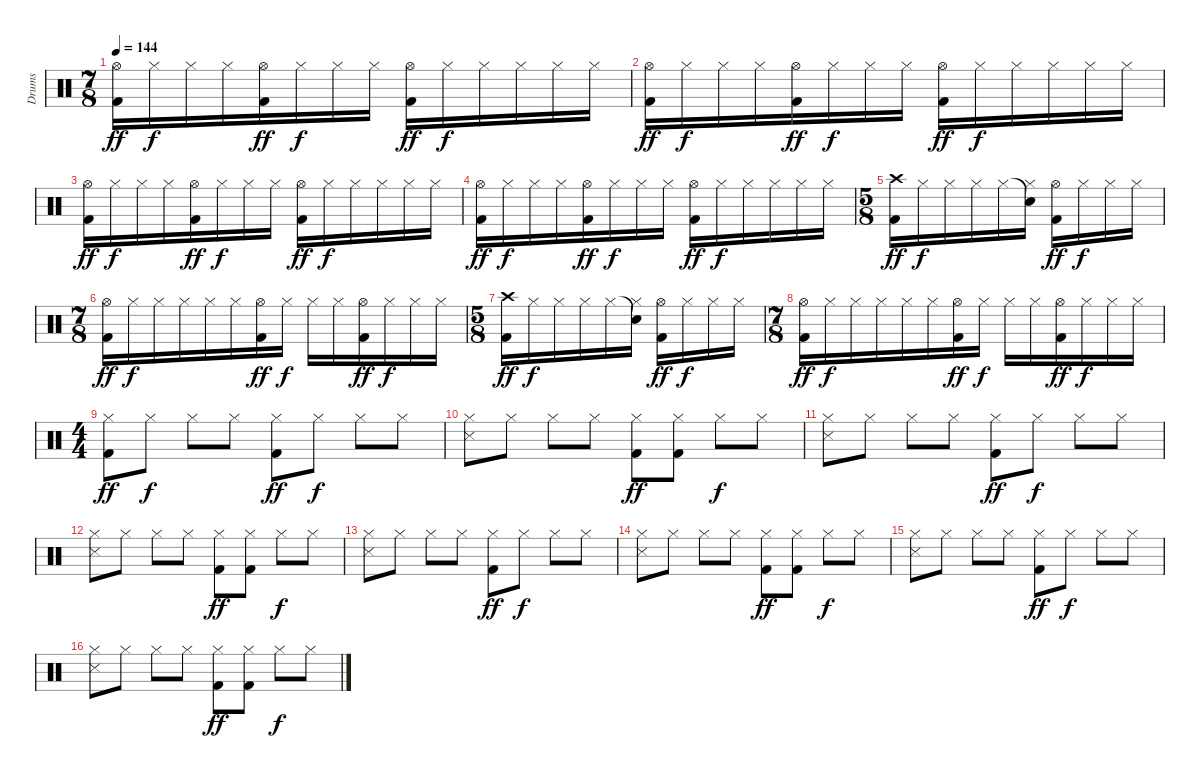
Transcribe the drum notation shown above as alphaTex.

\track ("Drums" "Drums") {instrument percussion}
\staff {score}
\articulation defaults
\ts (7 8)
\tempo 144
\clef neutral
\ks c
("Hi-Hat (open)" "Kick (hit) 2").16{dy ff} "Hi-Hat (closed)".16{dy f} "Hi-Hat (closed)".16 "Hi-Hat (closed)".16 ("Hi-Hat (open)" "Kick (hit) 2").16{dy ff} "Hi-Hat (closed)".16{dy f} "Hi-Hat (closed)".16 "Hi-Hat (closed)".16 ("Hi-Hat (open)" "Kick (hit) 2").16{dy ff} "Hi-Hat (closed)".16{dy f} "Hi-Hat (closed)".16 "Hi-Hat (closed)".16 "Hi-Hat (closed)".16 "Hi-Hat (closed)".16 |
("Hi-Hat (open)" "Kick (hit) 2").16{dy ff} "Hi-Hat (closed)".16{dy f} "Hi-Hat (closed)".16 "Hi-Hat (closed)".16 ("Hi-Hat (open)" "Kick (hit) 2").16{dy ff} "Hi-Hat (closed)".16{dy f} "Hi-Hat (closed)".16 "Hi-Hat (closed)".16 ("Hi-Hat (open)" "Kick (hit) 2").16{dy ff} "Hi-Hat (closed)".16{dy f} "Hi-Hat (closed)".16 "Hi-Hat (closed)".16 "Hi-Hat (closed)".16 "Hi-Hat (closed)".16 |
("Hi-Hat (open)" "Kick (hit) 2").16{dy ff} "Hi-Hat (closed)".16{dy f} "Hi-Hat (closed)".16 "Hi-Hat (closed)".16 ("Hi-Hat (open)" "Kick (hit) 2").16{dy ff} "Hi-Hat (closed)".16{dy f} "Hi-Hat (closed)".16 "Hi-Hat (closed)".16 ("Hi-Hat (open)" "Kick (hit) 2").16{dy ff} "Hi-Hat (closed)".16{dy f} "Hi-Hat (closed)".16 "Hi-Hat (closed)".16 "Hi-Hat (closed)".16 "Hi-Hat (closed)".16 |
("Hi-Hat (open)" "Kick (hit) 2").16{dy ff} "Hi-Hat (closed)".16{dy f} "Hi-Hat (closed)".16 "Hi-Hat (closed)".16 ("Hi-Hat (open)" "Kick (hit) 2").16{dy ff} "Hi-Hat (closed)".16{dy f} "Hi-Hat (closed)".16 "Hi-Hat (closed)".16 ("Hi-Hat (open)" "Kick (hit) 2").16{dy ff} "Hi-Hat (closed)".16{dy f} "Hi-Hat (closed)".16 "Hi-Hat (closed)".16 "Hi-Hat (closed)".16 "Hi-Hat (closed)".16 |
\ts (5 8)
("Crash high (hit)" "Kick (hit) 2").16{dy ff} "Hi-Hat (closed)".16{dy f} "Hi-Hat (closed)".16 "Hi-Hat (closed)".16 "Hi-Hat (closed)".16 ("Snare (hit)"{t} "Hi-Hat (closed)").16 ("Hi-Hat (open)" "Kick (hit) 2").16{dy ff} "Hi-Hat (closed)".16{dy f} "Hi-Hat (closed)".16 "Hi-Hat (closed)".16 |
\ts (7 8)
("Hi-Hat (open)" "Kick (hit) 2").16{dy ff} "Hi-Hat (closed)".16{dy f} "Hi-Hat (closed)".16 "Hi-Hat (closed)".16 "Hi-Hat (closed)".16 "Hi-Hat (closed)".16 ("Hi-Hat (open)" "Kick (hit) 2").16{dy ff} "Hi-Hat (closed)".16{dy f} "Hi-Hat (closed)".16 "Hi-Hat (closed)".16 ("Hi-Hat (open)" "Kick (hit) 2").16{dy ff} "Hi-Hat (closed)".16{dy f} "Hi-Hat (closed)".16 "Hi-Hat (closed)".16 |
\ts (5 8)
("Crash high (hit)" "Kick (hit) 2").16{dy ff} "Hi-Hat (closed)".16{dy f} "Hi-Hat (closed)".16 "Hi-Hat (closed)".16 "Hi-Hat (closed)".16 ("Snare (hit)"{t} "Hi-Hat (closed)").16 ("Hi-Hat (open)" "Kick (hit) 2").16{dy ff} "Hi-Hat (closed)".16{dy f} "Hi-Hat (closed)".16 "Hi-Hat (closed)".16 |
\ts (7 8)
("Hi-Hat (open)" "Kick (hit) 2").16{dy ff} "Hi-Hat (closed)".16{dy f} "Hi-Hat (closed)".16 "Hi-Hat (closed)".16 "Hi-Hat (closed)".16 "Hi-Hat (closed)".16 ("Hi-Hat (open)" "Kick (hit) 2").16{dy ff} "Hi-Hat (closed)".16{dy f} "Hi-Hat (closed)".16 "Hi-Hat (closed)".16 ("Hi-Hat (open)" "Kick (hit) 2").16{dy ff} "Hi-Hat (closed)".16{dy f} "Hi-Hat (closed)".16 "Hi-Hat (closed)".16 |
\ts (4 4)
("Hi-Hat (closed)" "Kick (hit) 2").8{dy ff} "Hi-Hat (closed)".8{dy f} "Hi-Hat (closed)".8 "Hi-Hat (closed)".8 ("Hi-Hat (closed)" "Kick (hit) 2").8{dy ff} "Hi-Hat (closed)".8{dy f} "Hi-Hat (closed)".8 "Hi-Hat (closed)".8 |
("Hi-Hat (closed)" "Snare (side stick) 3").8 "Hi-Hat (closed)".8 "Hi-Hat (closed)".8 "Hi-Hat (closed)".8 ("Hi-Hat (closed)" "Kick (hit) 2").8{dy ff} ("Hi-Hat (closed)" "Kick (hit) 2").8 "Hi-Hat (closed)".8{dy f} "Hi-Hat (closed)".8 |
("Hi-Hat (closed)" "Snare (side stick) 3").8 "Hi-Hat (closed)".8 "Hi-Hat (closed)".8 "Hi-Hat (closed)".8 ("Hi-Hat (closed)" "Kick (hit) 2").8{dy ff} "Hi-Hat (closed)".8{dy f} "Hi-Hat (closed)".8 "Hi-Hat (closed)".8 |
("Hi-Hat (closed)" "Snare (side stick) 3").8 "Hi-Hat (closed)".8 "Hi-Hat (closed)".8 "Hi-Hat (closed)".8 ("Hi-Hat (closed)" "Kick (hit) 2").8{dy ff} ("Hi-Hat (closed)" "Kick (hit) 2").8 "Hi-Hat (closed)".8{dy f} "Hi-Hat (closed)".8 |
("Hi-Hat (closed)" "Snare (side stick) 3").8 "Hi-Hat (closed)".8 "Hi-Hat (closed)".8 "Hi-Hat (closed)".8 ("Hi-Hat (closed)" "Kick (hit) 2").8{dy ff} "Hi-Hat (closed)".8{dy f} "Hi-Hat (closed)".8 "Hi-Hat (closed)".8 |
("Hi-Hat (closed)" "Snare (side stick) 3").8 "Hi-Hat (closed)".8 "Hi-Hat (closed)".8 "Hi-Hat (closed)".8 ("Hi-Hat (closed)" "Kick (hit) 2").8{dy ff} ("Hi-Hat (closed)" "Kick (hit) 2").8 "Hi-Hat (closed)".8{dy f} "Hi-Hat (closed)".8 |
("Hi-Hat (closed)" "Snare (side stick) 3").8 "Hi-Hat (closed)".8 "Hi-Hat (closed)".8 "Hi-Hat (closed)".8 ("Hi-Hat (closed)" "Kick (hit) 2").8{dy ff} "Hi-Hat (closed)".8{dy f} "Hi-Hat (closed)".8 "Hi-Hat (closed)".8 |
("Hi-Hat (closed)" "Snare (side stick) 3").8 "Hi-Hat (closed)".8 "Hi-Hat (closed)".8 "Hi-Hat (closed)".8 ("Hi-Hat (closed)" "Kick (hit) 2").8{dy ff} ("Hi-Hat (closed)" "Kick (hit) 2").8 "Hi-Hat (closed)".8{dy f} "Hi-Hat (closed)".8
